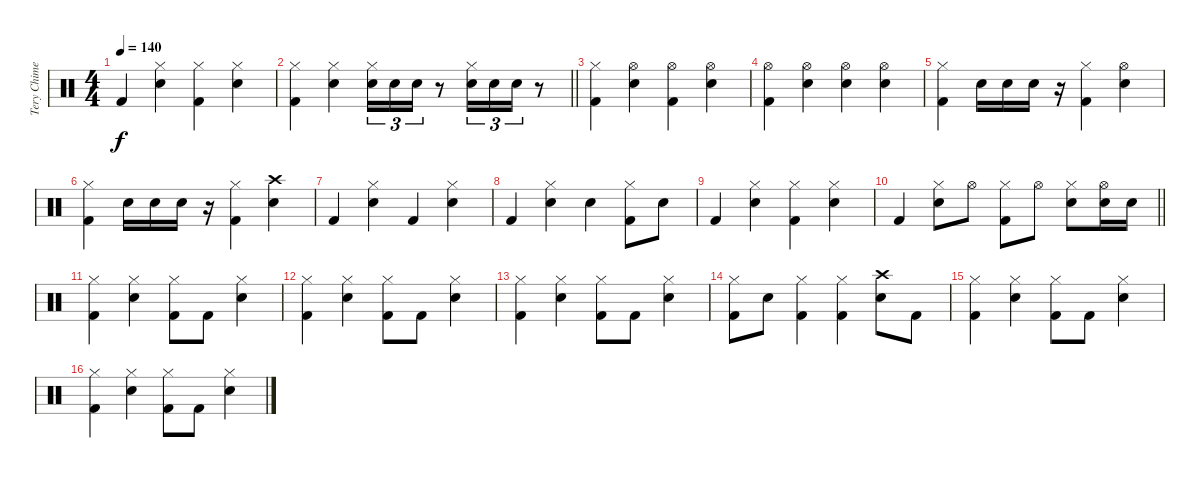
\track ("Tery Chimes" "Tery Chime") {instrument percussion}
\staff {score}
\articulation defaults
\ts (4 4)
\tempo 140
\clef neutral
\ks c "Kick (hit) 2".4{dy f}
("Hi-Hat (closed)" "Electric Snare (hit)").4 ("Hi-Hat (closed)" "Kick (hit) 2").4 ("Hi-Hat (closed)" "Electric Snare (hit)").4 |
\barLineRight lightlight
("Hi-Hat (closed)" "Kick (hit) 2").4 ("Hi-Hat (closed)" "Electric Snare (hit)").4 ("Hi-Hat (closed)" "Electric Snare (hit)").16{tu (3 2)} "Electric Snare (hit)".16{tu (3 2)} "Electric Snare (hit)".16{tu (3 2)} r.8 ("Hi-Hat (closed)" "Electric Snare (hit)").16{tu (3 2)} "Electric Snare (hit)".16{tu (3 2)} "Electric Snare (hit)".16{tu (3 2)} r.8 |
("Hi-Hat (closed)" "Kick (hit) 2").4 ("Hi-Hat (open)" "Electric Snare (hit)").4 ("Hi-Hat (open)" "Kick (hit) 2").4 ("Hi-Hat (open)" "Electric Snare (hit)").4 |
("Hi-Hat (open)" "Kick (hit) 2").4 ("Hi-Hat (open)" "Electric Snare (hit)").4 ("Hi-Hat (open)" "Electric Snare (hit)").4 ("Hi-Hat (open)" "Electric Snare (hit)").4 |
("Hi-Hat (closed)" "Kick (hit) 2").4 "Electric Snare (hit)".16 "Electric Snare (hit)".16 "Electric Snare (hit)".16 r.16 ("Hi-Hat (closed)" "Kick (hit) 2").4 ("Hi-Hat (open)" "Electric Snare (hit)").4 |
("Hi-Hat (closed)" "Kick (hit) 2").4 "Electric Snare (hit)".16 "Electric Snare (hit)".16 "Electric Snare (hit)".16 r.16 ("Hi-Hat (closed)" "Kick (hit) 2").4 ("Crash high (hit)" "Electric Snare (hit)").4 |
"Kick (hit) 2".4 ("Hi-Hat (closed)" "Electric Snare (hit)").4 "Kick (hit) 2".4 ("Hi-Hat (closed)" "Electric Snare (hit)").4 |
"Kick (hit) 2".4 ("Hi-Hat (closed)" "Electric Snare (hit)").4 "Electric Snare (hit)".4 ("Hi-Hat (closed)" "Kick (hit) 2").8 "Electric Snare (hit)".8 |
"Kick (hit) 2".4 ("Hi-Hat (closed)" "Electric Snare (hit)").4 ("Hi-Hat (closed)" "Kick (hit) 2").4 ("Hi-Hat (closed)" "Electric Snare (hit)").4 |
\barLineRight lightlight "Kick (hit) 2".4
("Hi-Hat (closed)" "Electric Snare (hit)").8 "Hi-Hat (open)".8 ("Hi-Hat (closed)" "Kick (hit) 2").8 "Hi-Hat (open)".8 ("Hi-Hat (closed)" "Electric Snare (hit)").8 ("Hi-Hat (open)" "Electric Snare (hit)").16 "Electric Snare (hit)".16 |
("Hi-Hat (closed)" "Kick (hit) 2").4 ("Hi-Hat (closed)" "Electric Snare (hit)").4 ("Hi-Hat (closed)" "Kick (hit) 2").8 "Kick (hit) 2".8 ("Hi-Hat (closed)" "Electric Snare (hit)").4 |
("Hi-Hat (closed)" "Kick (hit) 2").4 ("Hi-Hat (closed)" "Electric Snare (hit)").4 ("Hi-Hat (closed)" "Kick (hit) 2").8 "Kick (hit) 2".8 ("Hi-Hat (closed)" "Electric Snare (hit)").4 |
("Hi-Hat (closed)" "Kick (hit) 2").4 ("Hi-Hat (closed)" "Electric Snare (hit)").4 ("Hi-Hat (closed)" "Kick (hit) 2").8 "Kick (hit) 2".8 ("Hi-Hat (closed)" "Electric Snare (hit)").4 |
("Hi-Hat (closed)" "Kick (hit) 2").8 "Electric Snare (hit)".8 ("Hi-Hat (closed)" "Kick (hit) 2").4 ("Hi-Hat (closed)" "Kick (hit) 2").4 ("Crash high (hit)" "Electric Snare (hit)").8 "Kick (hit) 2".8 |
("Hi-Hat (closed)" "Kick (hit) 2").4 ("Hi-Hat (closed)" "Electric Snare (hit)").4 ("Hi-Hat (closed)" "Kick (hit) 2").8 "Kick (hit) 2".8 ("Hi-Hat (closed)" "Electric Snare (hit)").4 |
("Hi-Hat (closed)" "Kick (hit) 2").4 ("Hi-Hat (closed)" "Electric Snare (hit)").4 ("Hi-Hat (closed)" "Kick (hit) 2").8 "Kick (hit) 2".8 ("Hi-Hat (closed)" "Electric Snare (hit)").4
